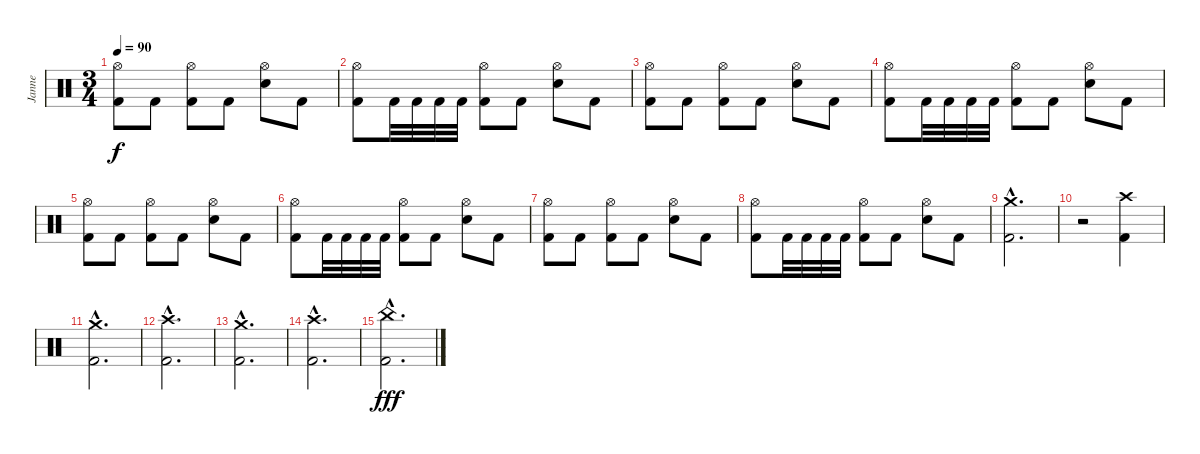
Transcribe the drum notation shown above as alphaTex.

\track ("Janne" "Janne") {instrument percussion}
\staff {score}
\articulation defaults
\ts (3 4)
\tempo 90
\clef neutral
\ks c
("Hi-Hat (open)" "Kick (hit) 2").8{dy f} "Kick (hit) 2".8 ("Hi-Hat (open)" "Kick (hit) 2").8 "Kick (hit) 2".8 ("Hi-Hat (open)" "Electric Snare (hit)").8 "Kick (hit) 2".8 |
("Hi-Hat (open)" "Kick (hit) 2").8 "Kick (hit) 2".32 "Kick (hit) 2".32 "Kick (hit) 2".32 "Kick (hit) 2".32 ("Hi-Hat (open)" "Kick (hit) 2").8 "Kick (hit) 2".8 ("Hi-Hat (open)" "Electric Snare (hit)").8 "Kick (hit) 2".8 |
("Hi-Hat (open)" "Kick (hit) 2").8 "Kick (hit) 2".8 ("Hi-Hat (open)" "Kick (hit) 2").8 "Kick (hit) 2".8 ("Hi-Hat (open)" "Electric Snare (hit)").8 "Kick (hit) 2".8 |
("Hi-Hat (open)" "Kick (hit) 2").8 "Kick (hit) 2".32 "Kick (hit) 2".32 "Kick (hit) 2".32 "Kick (hit) 2".32 ("Hi-Hat (open)" "Kick (hit) 2").8 "Kick (hit) 2".8 ("Hi-Hat (open)" "Electric Snare (hit)").8 "Kick (hit) 2".8 |
("Hi-Hat (open)" "Kick (hit) 2").8 "Kick (hit) 2".8 ("Hi-Hat (open)" "Kick (hit) 2").8 "Kick (hit) 2".8 ("Hi-Hat (open)" "Electric Snare (hit)").8 "Kick (hit) 2".8 |
("Hi-Hat (open)" "Kick (hit) 2").8 "Kick (hit) 2".32 "Kick (hit) 2".32 "Kick (hit) 2".32 "Kick (hit) 2".32 ("Hi-Hat (open)" "Kick (hit) 2").8 "Kick (hit) 2".8 ("Hi-Hat (open)" "Electric Snare (hit)").8 "Kick (hit) 2".8 |
("Hi-Hat (open)" "Kick (hit) 2").8 "Kick (hit) 2".8 ("Hi-Hat (open)" "Kick (hit) 2").8 "Kick (hit) 2".8 ("Hi-Hat (open)" "Electric Snare (hit)").8 "Kick (hit) 2".8 |
("Hi-Hat (open)" "Kick (hit) 2").8 "Kick (hit) 2".32 "Kick (hit) 2".32 "Kick (hit) 2".32 "Kick (hit) 2".32 ("Hi-Hat (open)" "Kick (hit) 2").8 "Kick (hit) 2".8 ("Hi-Hat (open)" "Electric Snare (hit)").8 "Kick (hit) 2".8 |
("Crash medium (hit)"{hac} "Kick (hit) 2"{hac}).2{d} |
r.2 ("Crash high (hit)" "Kick (hit) 2").4 |
("Crash medium (hit)"{hac} "Kick (hit) 2"{hac}).2{d} |
("Crash high (hit)"{hac} "Kick (hit) 2"{hac}).2{d} |
("Crash medium (hit)"{hac} "Kick (hit) 2"{hac}).2{d} |
("Crash high (hit)"{hac} "Kick (hit) 2"{hac}).2{d} |
("China (hit)"{hac} "Kick (hit) 2"{hac}).2{d dy fff}
